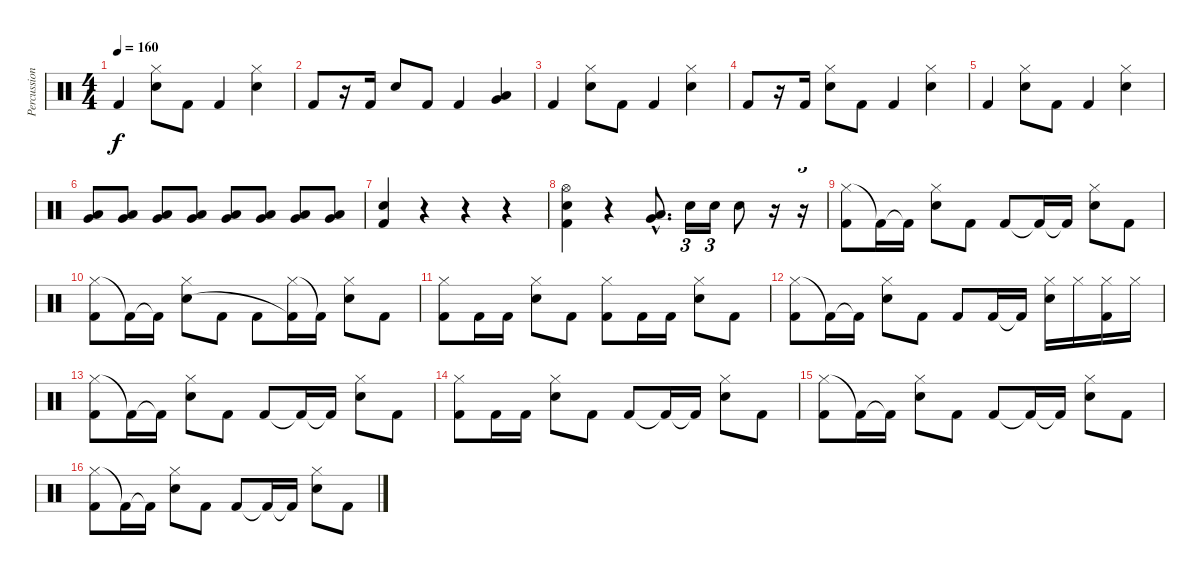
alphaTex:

\track ("Percussion" "Percussion") {instrument percussion}
\staff {score}
\articulation defaults
\ts (4 4)
\tempo 160
\clef neutral
\ks c "Kick (hit) 2".4{dy f}
("Hi-Hat (closed)" "Snare (hit) 2").8 "Kick (hit) 2".8 "Kick (hit) 2".4 ("Hi-Hat (closed)" "Snare (hit) 2").4 |
"Kick (hit) 2".8 r.16 "Kick (hit) 2".16 "Snare (hit) 2".8 "Kick (hit) 2".8 "Kick (hit) 2".4 ("Low Tom (hit)" "Very Low Tom (hit)").4 |
"Kick (hit) 2".4 ("Hi-Hat (closed)" "Snare (hit) 2").8 "Kick (hit) 2".8 "Kick (hit) 2".4 ("Hi-Hat (closed)" "Snare (hit) 2").4 |
"Kick (hit) 2".8 r.16 "Kick (hit) 2".16 ("Hi-Hat (closed)" "Snare (hit) 2").8 "Kick (hit) 2".8 "Kick (hit) 2".4 ("Hi-Hat (closed)" "Snare (hit) 2").4 |
"Kick (hit) 2".4 ("Hi-Hat (closed)" "Snare (hit) 2").8 "Kick (hit) 2".8 "Kick (hit) 2".4 ("Hi-Hat (closed)" "Snare (hit) 2").4 |
("Very Low Tom (hit)" "Low Floor Tom (hit)").8 ("Very Low Tom (hit)" "Low Floor Tom (hit)").8 ("Very Low Tom (hit)" "Low Floor Tom (hit)").8 ("Very Low Tom (hit)" "Low Floor Tom (hit)").8 ("Very Low Tom (hit)" "Low Floor Tom (hit)").8 ("Very Low Tom (hit)" "Low Floor Tom (hit)").8 ("Very Low Tom (hit)" "Low Floor Tom (hit)").8 ("Very Low Tom (hit)" "Low Floor Tom (hit)").8 |
("Kick (hit) 2" "Snare (hit) 2").4 r.4 r.4 r.4 |
("Hi-Hat (open)" "Kick (hit) 2" "Snare (hit) 2").4 r.4 ("Very Low Tom (hit)"{hac} "Low Floor Tom (hit)"{hac}).8{d} "Snare (hit) 2".16{tu (3 2)} "Snare (hit) 2".16{tu (3 2)} "Snare (hit) 2".8 r.16 r.16{tu (3 2)} |
("Hi-Hat (closed)" "Kick (hit) 2").8 "Kick (hit) 2"{t}.16 "Kick (hit) 2"{t}.16 ("Hi-Hat (closed)" "Snare (hit) 2").8 "Kick (hit) 2".8 "Kick (hit) 2".8 "Kick (hit) 2"{t}.16 "Kick (hit) 2"{t}.16 ("Hi-Hat (closed)" "Snare (hit) 2").8 "Kick (hit) 2".8 |
("Hi-Hat (closed)" "Kick (hit) 2").8 "Kick (hit) 2"{t}.16 "Kick (hit) 2"{t}.16 ("Hi-Hat (closed)" "Snare (hit) 2").8 "Kick (hit) 2".8 "Kick (hit) 2".8 ("Hi-Hat (closed)" "Kick (hit) 2"{t}).16 "Kick (hit) 2"{t}.16 ("Hi-Hat (closed)" "Snare (hit) 2").8 "Kick (hit) 2".8 |
("Hi-Hat (closed)" "Kick (hit) 2").8 "Kick (hit) 2".16 "Kick (hit) 2".16 ("Hi-Hat (closed)" "Snare (hit) 2").8 "Kick (hit) 2".8 ("Hi-Hat (closed)" "Kick (hit) 2").8 "Kick (hit) 2".16 "Kick (hit) 2".16 ("Hi-Hat (closed)" "Snare (hit) 2").8 "Kick (hit) 2".8 |
("Hi-Hat (closed)" "Kick (hit) 2").8 "Kick (hit) 2"{t}.16 "Kick (hit) 2"{t}.16 ("Hi-Hat (closed)" "Snare (hit) 2").8 "Kick (hit) 2".8 "Kick (hit) 2".8 "Kick (hit) 2".16 "Kick (hit) 2"{t}.16 ("Hi-Hat (closed)" "Snare (hit) 2").16 "Hi-Hat (closed)".16 ("Hi-Hat (closed)" "Kick (hit) 2").16 "Hi-Hat (closed)".16 |
("Hi-Hat (closed)" "Kick (hit) 2").8 "Kick (hit) 2"{t}.16 "Kick (hit) 2"{t}.16 ("Hi-Hat (closed)" "Snare (hit) 2").8 "Kick (hit) 2".8 "Kick (hit) 2".8 "Kick (hit) 2"{t}.16 "Kick (hit) 2"{t}.16 ("Hi-Hat (closed)" "Snare (hit) 2").8 "Kick (hit) 2".8 |
("Hi-Hat (closed)" "Kick (hit) 2").8 "Kick (hit) 2".16 "Kick (hit) 2".16 ("Hi-Hat (closed)" "Snare (hit) 2").8 "Kick (hit) 2".8 "Kick (hit) 2".8 "Kick (hit) 2"{t}.16 "Kick (hit) 2"{t}.16 ("Hi-Hat (closed)" "Snare (hit) 2").8 "Kick (hit) 2".8 |
("Hi-Hat (closed)" "Kick (hit) 2").8 "Kick (hit) 2"{t}.16 "Kick (hit) 2"{t}.16 ("Hi-Hat (closed)" "Snare (hit) 2").8 "Kick (hit) 2".8 "Kick (hit) 2".8 "Kick (hit) 2"{t}.16 "Kick (hit) 2"{t}.16 ("Hi-Hat (closed)" "Snare (hit) 2").8 "Kick (hit) 2".8 |
("Hi-Hat (closed)" "Kick (hit) 2").8 "Kick (hit) 2"{t}.16 "Kick (hit) 2"{t}.16 ("Hi-Hat (closed)" "Snare (hit) 2").8 "Kick (hit) 2".8 "Kick (hit) 2".8 "Kick (hit) 2"{t}.16 "Kick (hit) 2"{t}.16 ("Hi-Hat (closed)" "Snare (hit) 2").8 "Kick (hit) 2".8
